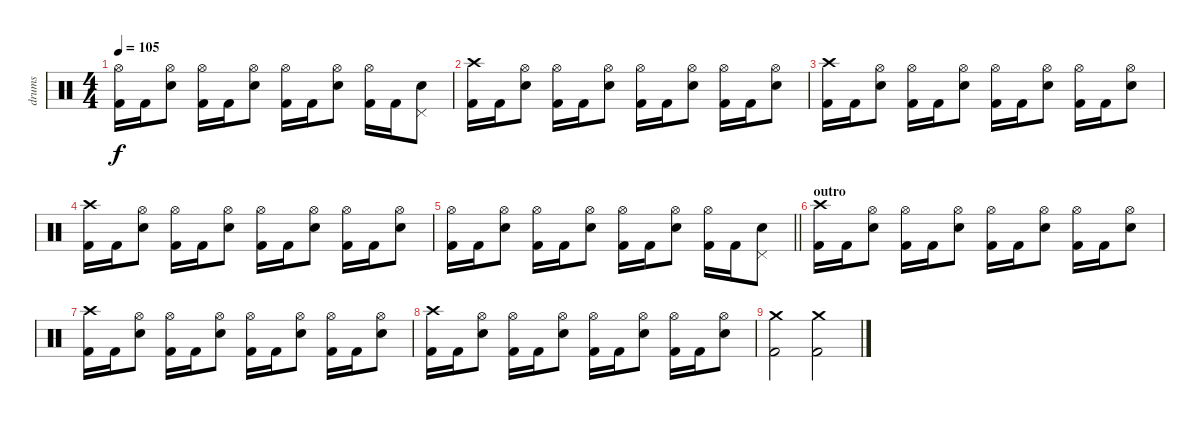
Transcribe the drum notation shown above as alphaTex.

\track ("drums" "drums") {instrument percussion}
\staff {score}
\articulation defaults
\ts (4 4)
\tempo 105
\clef neutral
\ks c
("Hi-Hat (open)" "Kick (hit) 2").16{dy f} "Kick (hit) 2".16 ("Hi-Hat (open)" "Snare (hit) 2").8 ("Hi-Hat (open)" "Kick (hit) 2").16 "Kick (hit) 2".16 ("Hi-Hat (open)" "Snare (hit) 2").8 ("Hi-Hat (open)" "Kick (hit) 2").16 "Kick (hit) 2".16 ("Hi-Hat (open)" "Snare (hit) 2").8 ("Hi-Hat (open)" "Kick (hit) 2").16 "Kick (hit) 2".16 ("Pedal Hi-Hat (hit)" "Snare (hit) 2").8 |
("Crash high (hit)" "Kick (hit) 2").16 "Kick (hit) 2".16 ("Hi-Hat (open)" "Snare (hit) 2").8 ("Hi-Hat (open)" "Kick (hit) 2").16 "Kick (hit) 2".16 ("Hi-Hat (open)" "Snare (hit) 2").8 ("Hi-Hat (open)" "Kick (hit) 2").16 "Kick (hit) 2".16 ("Hi-Hat (open)" "Snare (hit) 2").8 ("Hi-Hat (open)" "Kick (hit) 2").16 "Kick (hit) 2".16 ("Hi-Hat (open)" "Snare (hit) 2").8 |
("Crash high (hit)" "Kick (hit) 2").16 "Kick (hit) 2".16 ("Hi-Hat (open)" "Snare (hit) 2").8 ("Hi-Hat (open)" "Kick (hit) 2").16 "Kick (hit) 2".16 ("Hi-Hat (open)" "Snare (hit) 2").8 ("Hi-Hat (open)" "Kick (hit) 2").16 "Kick (hit) 2".16 ("Hi-Hat (open)" "Snare (hit) 2").8 ("Hi-Hat (open)" "Kick (hit) 2").16 "Kick (hit) 2".16 ("Hi-Hat (open)" "Snare (hit) 2").8 |
("Crash high (hit)" "Kick (hit) 2").16 "Kick (hit) 2".16 ("Hi-Hat (open)" "Snare (hit) 2").8 ("Hi-Hat (open)" "Kick (hit) 2").16 "Kick (hit) 2".16 ("Hi-Hat (open)" "Snare (hit) 2").8 ("Hi-Hat (open)" "Kick (hit) 2").16 "Kick (hit) 2".16 ("Hi-Hat (open)" "Snare (hit) 2").8 ("Hi-Hat (open)" "Kick (hit) 2").16 "Kick (hit) 2".16 ("Hi-Hat (open)" "Snare (hit) 2").8 |
\barLineRight lightlight
("Hi-Hat (open)" "Kick (hit) 2").16 "Kick (hit) 2".16 ("Hi-Hat (open)" "Snare (hit) 2").8 ("Hi-Hat (open)" "Kick (hit) 2").16 "Kick (hit) 2".16 ("Hi-Hat (open)" "Snare (hit) 2").8 ("Hi-Hat (open)" "Kick (hit) 2").16 "Kick (hit) 2".16 ("Hi-Hat (open)" "Snare (hit) 2").8 ("Hi-Hat (open)" "Kick (hit) 2").16 "Kick (hit) 2".16 ("Pedal Hi-Hat (hit)" "Snare (hit) 2").8 |
\section ("" "outro")
("Crash high (hit)" "Kick (hit) 2").16 "Kick (hit) 2".16 ("Hi-Hat (open)" "Snare (hit) 2").8 ("Hi-Hat (open)" "Kick (hit) 2").16 "Kick (hit) 2".16 ("Hi-Hat (open)" "Snare (hit) 2").8 ("Hi-Hat (open)" "Kick (hit) 2").16 "Kick (hit) 2".16 ("Hi-Hat (open)" "Snare (hit) 2").8 ("Hi-Hat (open)" "Kick (hit) 2").16 "Kick (hit) 2".16 ("Hi-Hat (open)" "Snare (hit) 2").8 |
("Crash high (hit)" "Kick (hit) 2").16 "Kick (hit) 2".16 ("Hi-Hat (open)" "Snare (hit) 2").8 ("Hi-Hat (open)" "Kick (hit) 2").16 "Kick (hit) 2".16 ("Hi-Hat (open)" "Snare (hit) 2").8 ("Hi-Hat (open)" "Kick (hit) 2").16 "Kick (hit) 2".16 ("Hi-Hat (open)" "Snare (hit) 2").8 ("Hi-Hat (open)" "Kick (hit) 2").16 "Kick (hit) 2".16 ("Hi-Hat (open)" "Snare (hit) 2").8 |
("Crash high (hit)" "Kick (hit) 2").16 "Kick (hit) 2".16 ("Hi-Hat (open)" "Snare (hit) 2").8 ("Hi-Hat (open)" "Kick (hit) 2").16 "Kick (hit) 2".16 ("Hi-Hat (open)" "Snare (hit) 2").8 ("Hi-Hat (open)" "Kick (hit) 2").16 "Kick (hit) 2".16 ("Hi-Hat (open)" "Snare (hit) 2").8 ("Hi-Hat (open)" "Kick (hit) 2").16 "Kick (hit) 2".16 ("Hi-Hat (open)" "Snare (hit) 2").8 |
("Crash medium (hit)" "Kick (hit) 2").2 ("Crash medium (hit)" "Kick (hit) 2").2
